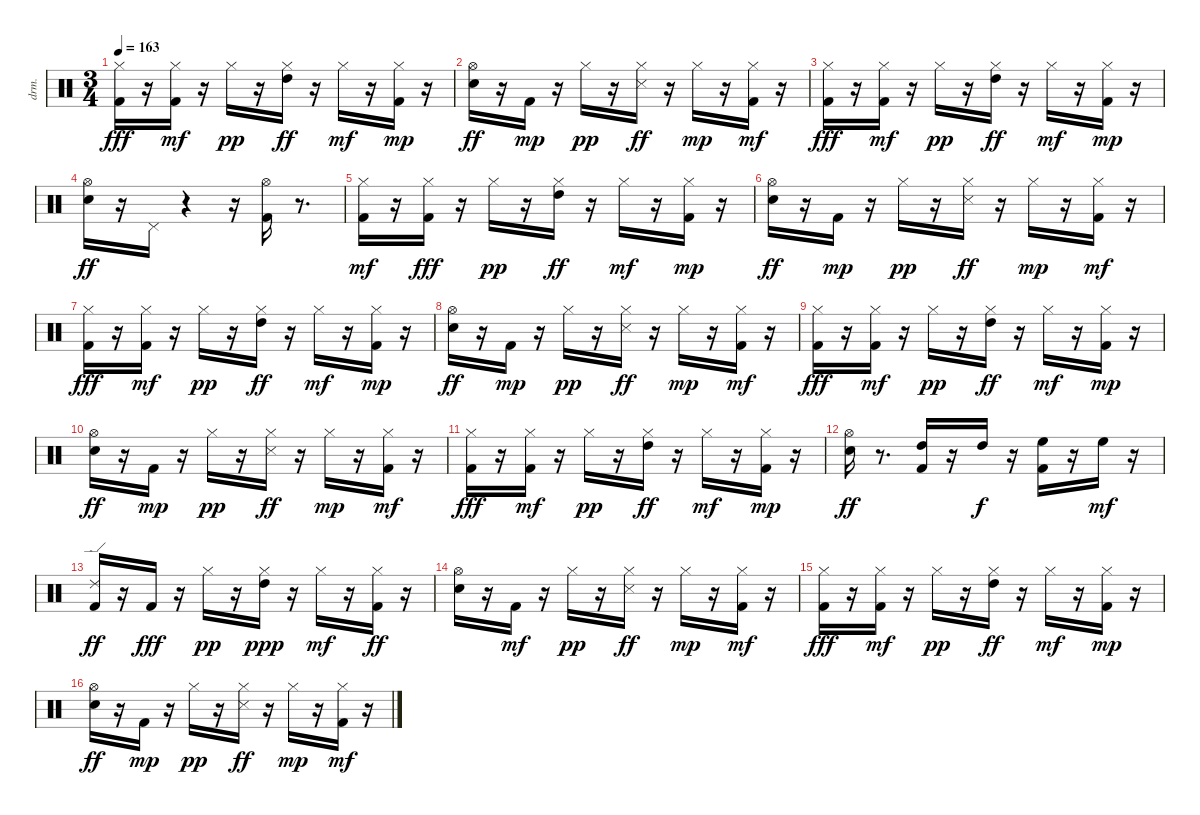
\bracketExtendMode nobrackets
\track ("EZdrummer 3" "drm.") {instrument percussion}
\staff {score}
\articulation defaults
\ts (3 4)
\tempo 163
\clef neutral
\ks aminor
("Kick (hit) 2" "Hi-Hat (closed)"{acc #}).16{dy fff} r.16 ("Kick (hit) 2" "Hi-Hat (closed)"{acc #}).16{dy mf} r.16 "Hi-Hat (closed)"{acc #}.16{dy pp} r.16 ("Hi-Hat (closed)"{acc #} "High Tom (hit)").16{dy ff} r.16 "Hi-Hat (closed)"{acc #}.16{dy mf} r.16 ("Kick (hit) 2" "Hi-Hat (closed)"{acc #}).16{dy mp} r.16 |
("Snare (hit) 2" "Hi-Hat (open)"{acc #}).16{dy ff} r.16 "Kick (hit) 2".16{dy mp} r.16 "Hi-Hat (closed)"{acc #}.16{dy pp} r.16 ("Snare (side stick) 3"{acc #} "Hi-Hat (closed)"{acc #}).16{dy ff} r.16 "Hi-Hat (closed)"{acc #}.16{dy mp} r.16 ("Kick (hit) 2" "Hi-Hat (closed)"{acc #}).16{dy mf} r.16 |
("Kick (hit) 2" "Hi-Hat (closed)"{acc #}).16{dy fff} r.16 ("Kick (hit) 2" "Hi-Hat (closed)"{acc #}).16{dy mf} r.16 "Hi-Hat (closed)"{acc #}.16{dy pp} r.16 ("Hi-Hat (closed)"{acc #} "High Tom (hit)").16{dy ff} r.16 "Hi-Hat (closed)"{acc #}.16{dy mf} r.16 ("Kick (hit) 2" "Hi-Hat (closed)"{acc #}).16{dy mp} r.16 |
("Snare (hit) 2" "Hi-Hat (open)"{acc #}).16{dy ff} r.16 "Pedal Hi-Hat (hit)"{acc #}.16 r.4 r.16 ("Kick (hit) 2" "Hi-Hat (open)"{acc #}).16 r.8{d} |
("Kick (hit) 2" "Hi-Hat (closed)"{acc #}).16{dy mf} r.16 ("Kick (hit) 2" "Hi-Hat (closed)"{acc #}).16{dy fff} r.16 "Hi-Hat (closed)"{acc #}.16{dy pp} r.16 ("Hi-Hat (closed)"{acc #} "High Tom (hit)").16{dy ff} r.16 "Hi-Hat (closed)"{acc #}.16{dy mf} r.16 ("Kick (hit) 2" "Hi-Hat (closed)"{acc #}).16{dy mp} r.16 |
("Snare (hit) 2" "Hi-Hat (open)"{acc #}).16{dy ff} r.16 "Kick (hit) 2".16{dy mp} r.16 "Hi-Hat (closed)"{acc #}.16{dy pp} r.16 ("Snare (side stick) 3"{acc #} "Hi-Hat (closed)"{acc #}).16{dy ff} r.16 "Hi-Hat (closed)"{acc #}.16{dy mp} r.16 ("Kick (hit) 2" "Hi-Hat (closed)"{acc #}).16{dy mf} r.16 |
("Kick (hit) 2" "Hi-Hat (closed)"{acc #}).16{dy fff} r.16 ("Kick (hit) 2" "Hi-Hat (closed)"{acc #}).16{dy mf} r.16 "Hi-Hat (closed)"{acc #}.16{dy pp} r.16 ("Hi-Hat (closed)"{acc #} "High Tom (hit)").16{dy ff} r.16 "Hi-Hat (closed)"{acc #}.16{dy mf} r.16 ("Kick (hit) 2" "Hi-Hat (closed)"{acc #}).16{dy mp} r.16 |
("Snare (hit) 2" "Hi-Hat (open)"{acc #}).16{dy ff} r.16 "Kick (hit) 2".16{dy mp} r.16 "Hi-Hat (closed)"{acc #}.16{dy pp} r.16 ("Snare (side stick) 3"{acc #} "Hi-Hat (closed)"{acc #}).16{dy ff} r.16 "Hi-Hat (closed)"{acc #}.16{dy mp} r.16 ("Kick (hit) 2" "Hi-Hat (closed)"{acc #}).16{dy mf} r.16 |
("Kick (hit) 2" "Hi-Hat (closed)"{acc #}).16{dy fff} r.16 ("Kick (hit) 2" "Hi-Hat (closed)"{acc #}).16{dy mf} r.16 "Hi-Hat (closed)"{acc #}.16{dy pp} r.16 ("Hi-Hat (closed)"{acc #} "High Tom (hit)").16{dy ff} r.16 "Hi-Hat (closed)"{acc #}.16{dy mf} r.16 ("Kick (hit) 2" "Hi-Hat (closed)"{acc #}).16{dy mp} r.16 |
("Snare (hit) 2" "Hi-Hat (open)"{acc #}).16{dy ff} r.16 "Kick (hit) 2".16{dy mp} r.16 "Hi-Hat (closed)"{acc #}.16{dy pp} r.16 ("Snare (side stick) 3"{acc #} "Hi-Hat (closed)"{acc #}).16{dy ff} r.16 "Hi-Hat (closed)"{acc #}.16{dy mp} r.16 ("Kick (hit) 2" "Hi-Hat (closed)"{acc #}).16{dy mf} r.16 |
("Kick (hit) 2" "Hi-Hat (closed)"{acc #}).16{dy fff} r.16 ("Kick (hit) 2" "Hi-Hat (closed)"{acc #}).16{dy mf} r.16 "Hi-Hat (closed)"{acc #}.16{dy pp} r.16 ("Hi-Hat (closed)"{acc #} "High Tom (hit)").16{dy ff} r.16 "Hi-Hat (closed)"{acc #}.16{dy mf} r.16 ("Kick (hit) 2" "Hi-Hat (closed)"{acc #}).16{dy mp} r.16 |
("Snare (hit) 2" "Hi-Hat (open)"{acc #}).16{dy ff} r.8{d} ("Kick (hit) 2" "High Tom (hit)").16 r.16 "High Tom (hit)".16{dy f} r.16 ("Kick (hit) 2" "High Floor Tom (hit)").16 r.16 "High Floor Tom (hit)".16{dy mf} r.16 |
("Kick (hit) 2" "Ride (edge) 2").16{dy ff} r.16 "Kick (hit) 2".16{dy fff} r.16 "Hi-Hat (closed)"{acc #}.16{dy pp} r.16 ("Hi-Hat (closed)"{acc #} "High Tom (hit)").16{dy ppp} r.16 "Hi-Hat (closed)"{acc #}.16{dy mf} r.16 ("Kick (hit) 2" "Hi-Hat (closed)"{acc #}).16{dy ff} r.16 |
("Snare (hit) 2" "Hi-Hat (open)"{acc #}).16 r.16 "Kick (hit) 2".16{dy mf} r.16 "Hi-Hat (closed)"{acc #}.16{dy pp} r.16 ("Snare (side stick) 3"{acc #} "Hi-Hat (closed)"{acc #}).16{dy ff} r.16 "Hi-Hat (closed)"{acc #}.16{dy mp} r.16 ("Kick (hit) 2" "Hi-Hat (closed)"{acc #}).16{dy mf} r.16 |
("Kick (hit) 2" "Hi-Hat (closed)"{acc #}).16{dy fff} r.16 ("Kick (hit) 2" "Hi-Hat (closed)"{acc #}).16{dy mf} r.16 "Hi-Hat (closed)"{acc #}.16{dy pp} r.16 ("Hi-Hat (closed)"{acc #} "High Tom (hit)").16{dy ff} r.16 "Hi-Hat (closed)"{acc #}.16{dy mf} r.16 ("Kick (hit) 2" "Hi-Hat (closed)"{acc #}).16{dy mp} r.16 |
("Snare (hit) 2" "Hi-Hat (open)"{acc #}).16{dy ff} r.16 "Kick (hit) 2".16{dy mp} r.16 "Hi-Hat (closed)"{acc #}.16{dy pp} r.16 ("Snare (side stick) 3"{acc #} "Hi-Hat (closed)"{acc #}).16{dy ff} r.16 "Hi-Hat (closed)"{acc #}.16{dy mp} r.16 ("Kick (hit) 2" "Hi-Hat (closed)"{acc #}).16{dy mf} r.16
